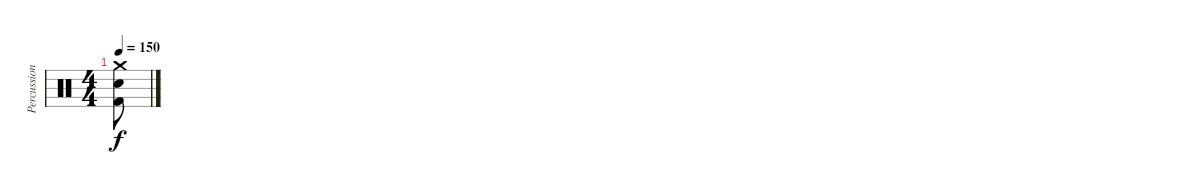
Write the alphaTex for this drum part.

\track ("Percussion" "Percussion") {instrument percussion}
\staff {score}
\articulation defaults
\ts (4 4)
\tempo 150
\clef neutral
\ks c
("Crash medium (hit)" "Electric Snare (hit)" "Kick (hit) 2").8{dy f}
